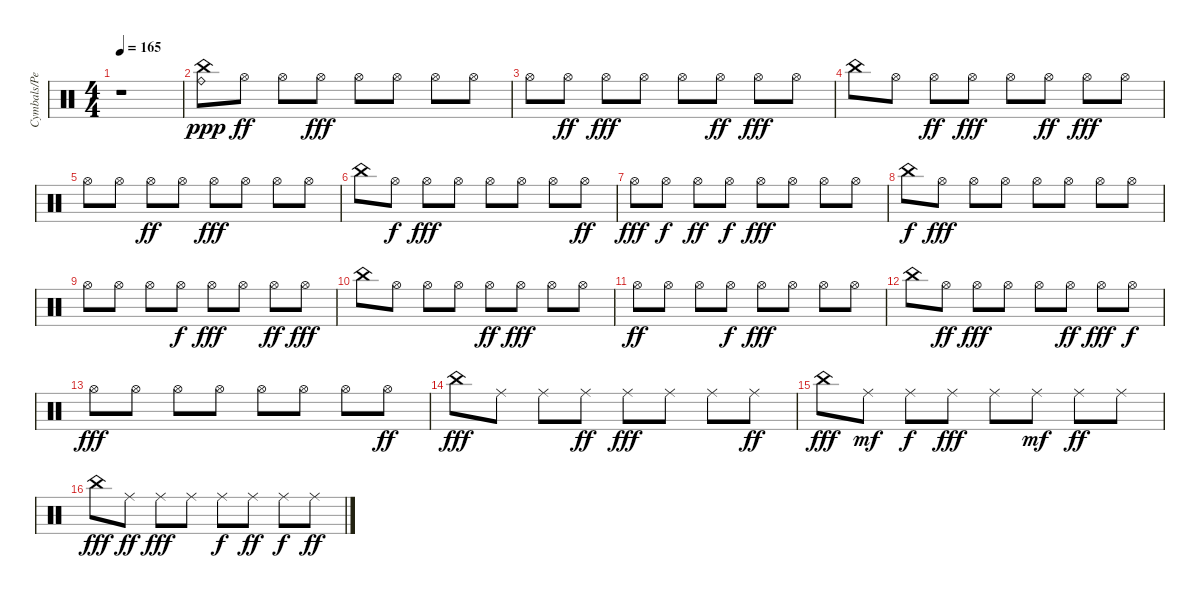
\track ("Cymbals/Percussion" "Cymbals/Pe") {instrument percussion}
\staff {score}
\articulation defaults
\ts (4 4)
\tempo 165
\clef neutral
\ks c
r.1{dy ppp} |
("China (hit)" "Ride (bell)").8 "Hi-Hat (open)".8{dy ff} "Hi-Hat (open)".8 "Hi-Hat (open)".8{dy fff} "Hi-Hat (open)".8 "Hi-Hat (open)".8 "Hi-Hat (open)".8 "Hi-Hat (open)".8 |
"Hi-Hat (open)".8 "Hi-Hat (open)".8{dy ff} "Hi-Hat (open)".8{dy fff} "Hi-Hat (open)".8 "Hi-Hat (open)".8 "Hi-Hat (open)".8{dy ff} "Hi-Hat (open)".8{dy fff} "Hi-Hat (open)".8 |
"China (hit)".8 "Hi-Hat (open)".8 "Hi-Hat (open)".8{dy ff} "Hi-Hat (open)".8{dy fff} "Hi-Hat (open)".8 "Hi-Hat (open)".8{dy ff} "Hi-Hat (open)".8{dy fff} "Hi-Hat (open)".8 |
"Hi-Hat (open)".8 "Hi-Hat (open)".8 "Hi-Hat (open)".8{dy ff} "Hi-Hat (open)".8 "Hi-Hat (open)".8{dy fff} "Hi-Hat (open)".8 "Hi-Hat (open)".8 "Hi-Hat (open)".8 |
"China (hit)".8 "Hi-Hat (open)".8{dy f} "Hi-Hat (open)".8{dy fff} "Hi-Hat (open)".8 "Hi-Hat (open)".8 "Hi-Hat (open)".8 "Hi-Hat (open)".8 "Hi-Hat (open)".8{dy ff} |
"Hi-Hat (open)".8{dy fff} "Hi-Hat (open)".8{dy f} "Hi-Hat (open)".8{dy ff} "Hi-Hat (open)".8{dy f} "Hi-Hat (open)".8{dy fff} "Hi-Hat (open)".8 "Hi-Hat (open)".8 "Hi-Hat (open)".8 |
"China (hit)".8{dy f} "Hi-Hat (open)".8{dy fff} "Hi-Hat (open)".8 "Hi-Hat (open)".8 "Hi-Hat (open)".8 "Hi-Hat (open)".8 "Hi-Hat (open)".8 "Hi-Hat (open)".8 |
"Hi-Hat (open)".8 "Hi-Hat (open)".8 "Hi-Hat (open)".8 "Hi-Hat (open)".8{dy f} "Hi-Hat (open)".8{dy fff} "Hi-Hat (open)".8 "Hi-Hat (open)".8{dy ff} "Hi-Hat (open)".8{dy fff} |
"China (hit)".8 "Hi-Hat (open)".8 "Hi-Hat (open)".8 "Hi-Hat (open)".8 "Hi-Hat (open)".8{dy ff} "Hi-Hat (open)".8{dy fff} "Hi-Hat (open)".8 "Hi-Hat (open)".8 |
"Hi-Hat (open)".8{dy ff} "Hi-Hat (open)".8 "Hi-Hat (open)".8 "Hi-Hat (open)".8{dy f} "Hi-Hat (open)".8{dy fff} "Hi-Hat (open)".8 "Hi-Hat (open)".8 "Hi-Hat (open)".8 |
"China (hit)".8 "Hi-Hat (open)".8{dy ff} "Hi-Hat (open)".8{dy fff} "Hi-Hat (open)".8 "Hi-Hat (open)".8 "Hi-Hat (open)".8{dy ff} "Hi-Hat (open)".8{dy fff} "Hi-Hat (open)".8{dy f} |
"Hi-Hat (open)".8{dy fff} "Hi-Hat (open)".8 "Hi-Hat (open)".8 "Hi-Hat (open)".8 "Hi-Hat (open)".8 "Hi-Hat (open)".8 "Hi-Hat (open)".8 "Hi-Hat (open)".8{dy ff} |
"China (hit)".8{dy fff} "Ride (middle)".8 "Ride (middle)".8 "Ride (middle)".8{dy ff} "Ride (middle)".8{dy fff} "Ride (middle)".8 "Ride (middle)".8 "Ride (middle)".8{dy ff} |
"China (hit)".8{dy fff} "Ride (middle)".8{dy mf} "Ride (middle)".8{dy f} "Ride (middle)".8{dy fff} "Ride (middle)".8 "Ride (middle)".8{dy mf} "Ride (middle)".8{dy ff} "Ride (middle)".8 |
"China (hit)".8{dy fff} "Ride (middle)".8{dy ff} "Ride (middle)".8{dy fff} "Ride (middle)".8 "Ride (middle)".8{dy f} "Ride (middle)".8{dy ff} "Ride (middle)".8{dy f} "Ride (middle)".8{dy ff}
